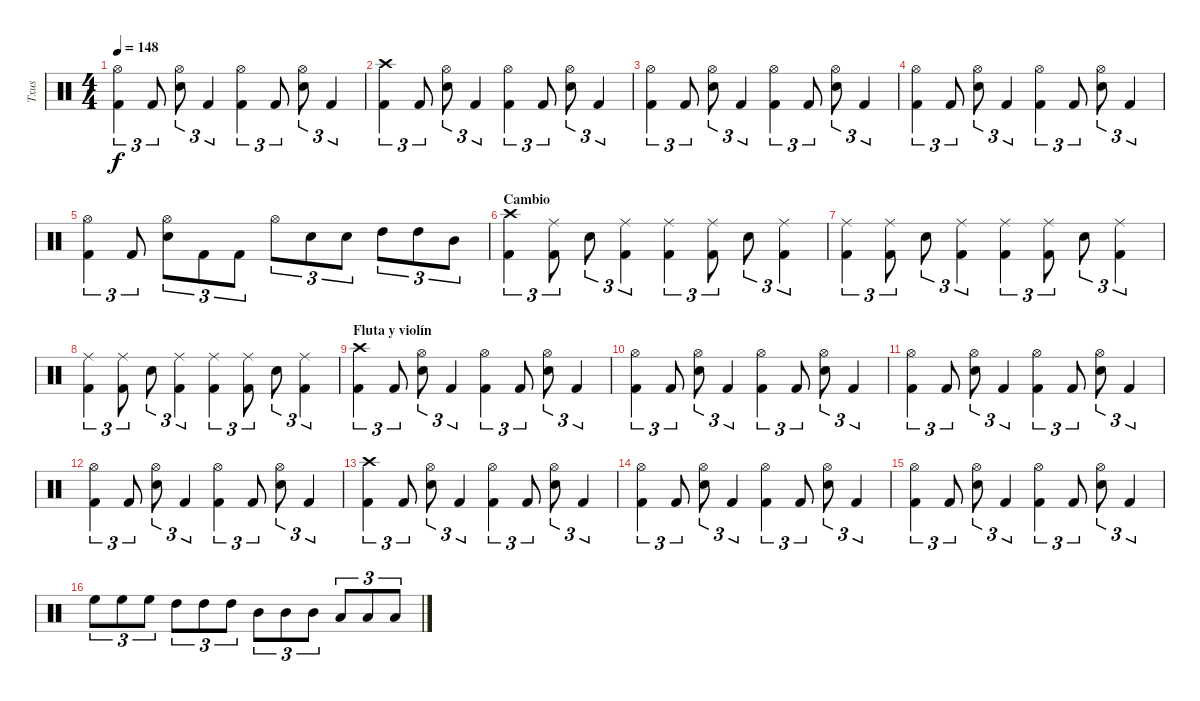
\track ("Txus" "Txus") {instrument percussion}
\staff {score}
\articulation defaults
\ts (4 4)
\tempo 148
\clef neutral
\ks c
("Kick (hit) 2" "Hi-Hat (open)").4{tu (3 2) dy f} "Kick (hit) 2".8{tu (3 2)} ("Hi-Hat (open)" "Electric Snare (hit)").8{tu (3 2)} "Kick (hit) 2".4{tu (3 2)} ("Kick (hit) 2" "Hi-Hat (open)").4{tu (3 2)} "Kick (hit) 2".8{tu (3 2)} ("Hi-Hat (open)" "Electric Snare (hit)").8{tu (3 2)} "Kick (hit) 2".4{tu (3 2)} |
("Kick (hit) 2" "Crash high (hit)").4{tu (3 2)} "Kick (hit) 2".8{tu (3 2)} ("Hi-Hat (open)" "Electric Snare (hit)").8{tu (3 2)} "Kick (hit) 2".4{tu (3 2)} ("Kick (hit) 2" "Hi-Hat (open)").4{tu (3 2)} "Kick (hit) 2".8{tu (3 2)} ("Hi-Hat (open)" "Electric Snare (hit)").8{tu (3 2)} "Kick (hit) 2".4{tu (3 2)} |
("Kick (hit) 2" "Hi-Hat (open)").4{tu (3 2)} "Kick (hit) 2".8{tu (3 2)} ("Hi-Hat (open)" "Electric Snare (hit)").8{tu (3 2)} "Kick (hit) 2".4{tu (3 2)} ("Kick (hit) 2" "Hi-Hat (open)").4{tu (3 2)} "Kick (hit) 2".8{tu (3 2)} ("Hi-Hat (open)" "Electric Snare (hit)").8{tu (3 2)} "Kick (hit) 2".4{tu (3 2)} |
("Kick (hit) 2" "Hi-Hat (open)").4{tu (3 2)} "Kick (hit) 2".8{tu (3 2)} ("Hi-Hat (open)" "Electric Snare (hit)").8{tu (3 2)} "Kick (hit) 2".4{tu (3 2)} ("Kick (hit) 2" "Hi-Hat (open)").4{tu (3 2)} "Kick (hit) 2".8{tu (3 2)} ("Hi-Hat (open)" "Electric Snare (hit)").8{tu (3 2)} "Kick (hit) 2".4{tu (3 2)} |
("Kick (hit) 2" "Hi-Hat (open)").4{tu (3 2)} "Kick (hit) 2".8{tu (3 2)} ("Hi-Hat (open)" "Electric Snare (hit)").8{tu (3 2)} "Kick (hit) 2".8{tu (3 2)} "Kick (hit) 2".8{tu (3 2)} "Hi-Hat (open)".8{tu (3 2)} "Electric Snare (hit)".8{tu (3 2)} "Electric Snare (hit)".8{tu (3 2)} "High Tom (hit)".8{tu (3 2)} "High Tom (hit)".8{tu (3 2)} "Mid Tom (hit)".8{tu (3 2)} |
\section ("" "Cambio")
("Kick (hit) 2" "Crash high (hit)").4{tu (3 2)} ("Kick (hit) 2" "Ride (middle)").8{tu (3 2)} "Electric Snare (hit)".8{tu (3 2)} ("Kick (hit) 2" "Ride (middle)").4{tu (3 2)} ("Kick (hit) 2" "Ride (middle)").4{tu (3 2)} ("Kick (hit) 2" "Ride (middle)").8{tu (3 2)} "Electric Snare (hit)".8{tu (3 2)} ("Kick (hit) 2" "Ride (middle)").4{tu (3 2)} |
("Kick (hit) 2" "Ride (middle)").4{tu (3 2)} ("Kick (hit) 2" "Ride (middle)").8{tu (3 2)} "Electric Snare (hit)".8{tu (3 2)} ("Kick (hit) 2" "Ride (middle)").4{tu (3 2)} ("Kick (hit) 2" "Ride (middle)").4{tu (3 2)} ("Kick (hit) 2" "Ride (middle)").8{tu (3 2)} "Electric Snare (hit)".8{tu (3 2)} ("Kick (hit) 2" "Ride (middle)").4{tu (3 2)} |
("Kick (hit) 2" "Ride (middle)").4{tu (3 2)} ("Kick (hit) 2" "Ride (middle)").8{tu (3 2)} "Electric Snare (hit)".8{tu (3 2)} ("Kick (hit) 2" "Ride (middle)").4{tu (3 2)} ("Kick (hit) 2" "Ride (middle)").4{tu (3 2)} ("Kick (hit) 2" "Ride (middle)").8{tu (3 2)} "Electric Snare (hit)".8{tu (3 2)} ("Kick (hit) 2" "Ride (middle)").4{tu (3 2)} |
\section ("" "Fluta y violín")
("Kick (hit) 2" "Crash high (hit)").4{tu (3 2)} "Kick (hit) 2".8{tu (3 2)} ("Hi-Hat (open)" "Electric Snare (hit)").8{tu (3 2)} "Kick (hit) 2".4{tu (3 2)} ("Kick (hit) 2" "Hi-Hat (open)").4{tu (3 2)} "Kick (hit) 2".8{tu (3 2)} ("Hi-Hat (open)" "Electric Snare (hit)").8{tu (3 2)} "Kick (hit) 2".4{tu (3 2)} |
("Kick (hit) 2" "Hi-Hat (open)").4{tu (3 2)} "Kick (hit) 2".8{tu (3 2)} ("Hi-Hat (open)" "Electric Snare (hit)").8{tu (3 2)} "Kick (hit) 2".4{tu (3 2)} ("Kick (hit) 2" "Hi-Hat (open)").4{tu (3 2)} "Kick (hit) 2".8{tu (3 2)} ("Hi-Hat (open)" "Electric Snare (hit)").8{tu (3 2)} "Kick (hit) 2".4{tu (3 2)} |
("Kick (hit) 2" "Hi-Hat (open)").4{tu (3 2)} "Kick (hit) 2".8{tu (3 2)} ("Hi-Hat (open)" "Electric Snare (hit)").8{tu (3 2)} "Kick (hit) 2".4{tu (3 2)} ("Kick (hit) 2" "Hi-Hat (open)").4{tu (3 2)} "Kick (hit) 2".8{tu (3 2)} ("Hi-Hat (open)" "Electric Snare (hit)").8{tu (3 2)} "Kick (hit) 2".4{tu (3 2)} |
("Kick (hit) 2" "Hi-Hat (open)").4{tu (3 2)} "Kick (hit) 2".8{tu (3 2)} ("Hi-Hat (open)" "Electric Snare (hit)").8{tu (3 2)} "Kick (hit) 2".4{tu (3 2)} ("Kick (hit) 2" "Hi-Hat (open)").4{tu (3 2)} "Kick (hit) 2".8{tu (3 2)} ("Hi-Hat (open)" "Electric Snare (hit)").8{tu (3 2)} "Kick (hit) 2".4{tu (3 2)} |
("Kick (hit) 2" "Crash high (hit)").4{tu (3 2)} "Kick (hit) 2".8{tu (3 2)} ("Hi-Hat (open)" "Electric Snare (hit)").8{tu (3 2)} "Kick (hit) 2".4{tu (3 2)} ("Kick (hit) 2" "Hi-Hat (open)").4{tu (3 2)} "Kick (hit) 2".8{tu (3 2)} ("Hi-Hat (open)" "Electric Snare (hit)").8{tu (3 2)} "Kick (hit) 2".4{tu (3 2)} |
("Kick (hit) 2" "Hi-Hat (open)").4{tu (3 2)} "Kick (hit) 2".8{tu (3 2)} ("Hi-Hat (open)" "Electric Snare (hit)").8{tu (3 2)} "Kick (hit) 2".4{tu (3 2)} ("Kick (hit) 2" "Hi-Hat (open)").4{tu (3 2)} "Kick (hit) 2".8{tu (3 2)} ("Hi-Hat (open)" "Electric Snare (hit)").8{tu (3 2)} "Kick (hit) 2".4{tu (3 2)} |
("Kick (hit) 2" "Hi-Hat (open)").4{tu (3 2)} "Kick (hit) 2".8{tu (3 2)} ("Hi-Hat (open)" "Electric Snare (hit)").8{tu (3 2)} "Kick (hit) 2".4{tu (3 2)} ("Kick (hit) 2" "Hi-Hat (open)").4{tu (3 2)} "Kick (hit) 2".8{tu (3 2)} ("Hi-Hat (open)" "Electric Snare (hit)").8{tu (3 2)} "Kick (hit) 2".4{tu (3 2)} |
"High Floor Tom (hit)".8{tu (3 2)} "High Floor Tom (hit)".8{tu (3 2)} "High Floor Tom (hit)".8{tu (3 2)} "High Tom (hit)".8{tu (3 2)} "High Tom (hit)".8{tu (3 2)} "High Tom (hit)".8{tu (3 2)} "Mid Tom (hit)".8{tu (3 2)} "Mid Tom (hit)".8{tu (3 2)} "Mid Tom (hit)".8{tu (3 2)} "Low Tom (hit)".8{tu (3 2)} "Low Tom (hit)".8{tu (3 2)} "Low Tom (hit)".8{tu (3 2)}
